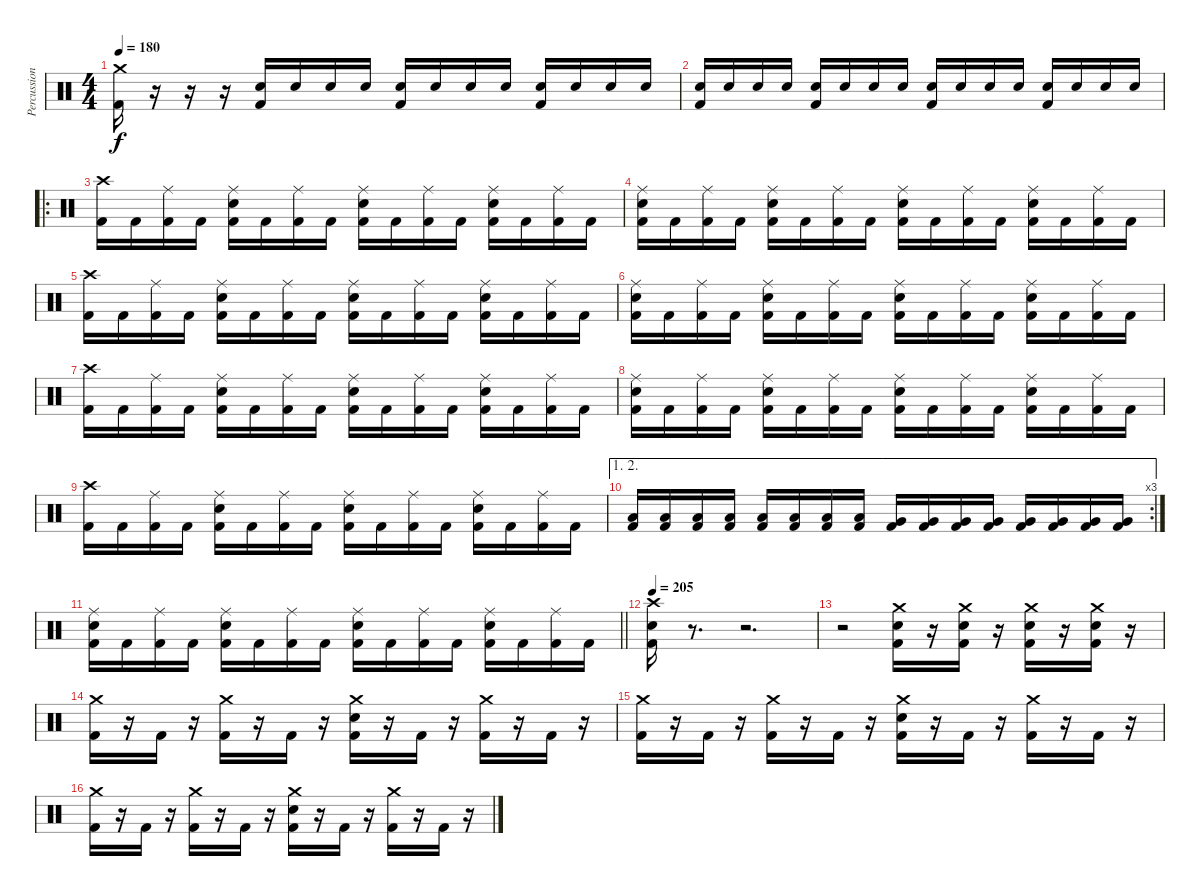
\track ("Percussion" "Percussion") {instrument percussion}
\staff {score}
\articulation defaults
\ts (4 4)
\tempo 180
\clef neutral
\ks c
("Crash medium (hit)" "Kick (hit) 2").16{dy f} r.16 r.16 r.16 ("Electric Snare (hit)" "Kick (hit) 2").16 "Electric Snare (hit)".16 "Electric Snare (hit)".16 "Electric Snare (hit)".16 ("Electric Snare (hit)" "Kick (hit) 2").16 "Electric Snare (hit)".16 "Electric Snare (hit)".16 "Electric Snare (hit)".16 ("Electric Snare (hit)" "Kick (hit) 2").16 "Electric Snare (hit)".16 "Electric Snare (hit)".16 "Electric Snare (hit)".16 |
("Electric Snare (hit)" "Kick (hit) 2").16 "Electric Snare (hit)".16 "Electric Snare (hit)".16 "Electric Snare (hit)".16 ("Electric Snare (hit)" "Kick (hit) 2").16 "Electric Snare (hit)".16 "Electric Snare (hit)".16 "Electric Snare (hit)".16 ("Electric Snare (hit)" "Kick (hit) 2").16 "Electric Snare (hit)".16 "Electric Snare (hit)".16 "Electric Snare (hit)".16 ("Electric Snare (hit)" "Kick (hit) 2").16 "Electric Snare (hit)".16 "Electric Snare (hit)".16 "Electric Snare (hit)".16 |
\ro
("Crash high (hit)" "Kick (hit) 2").16 "Kick (hit) 2".16 ("Ride (middle)" "Kick (hit) 2").16 "Kick (hit) 2".16 ("Ride (middle)" "Electric Snare (hit)" "Kick (hit) 2").16 "Kick (hit) 2".16 ("Ride (middle)" "Kick (hit) 2").16 "Kick (hit) 2".16 ("Ride (middle)" "Electric Snare (hit)" "Kick (hit) 2").16 "Kick (hit) 2".16 ("Ride (middle)" "Kick (hit) 2").16 "Kick (hit) 2".16 ("Ride (middle)" "Electric Snare (hit)" "Kick (hit) 2").16 "Kick (hit) 2".16 ("Ride (middle)" "Kick (hit) 2").16 "Kick (hit) 2".16 |
("Ride (middle)" "Electric Snare (hit)" "Kick (hit) 2").16 "Kick (hit) 2".16 ("Ride (middle)" "Kick (hit) 2").16 "Kick (hit) 2".16 ("Ride (middle)" "Electric Snare (hit)" "Kick (hit) 2").16 "Kick (hit) 2".16 ("Ride (middle)" "Kick (hit) 2").16 "Kick (hit) 2".16 ("Ride (middle)" "Electric Snare (hit)" "Kick (hit) 2").16 "Kick (hit) 2".16 ("Ride (middle)" "Kick (hit) 2").16 "Kick (hit) 2".16 ("Ride (middle)" "Electric Snare (hit)" "Kick (hit) 2").16 "Kick (hit) 2".16 ("Ride (middle)" "Kick (hit) 2").16 "Kick (hit) 2".16 |
("Crash high (hit)" "Kick (hit) 2").16 "Kick (hit) 2".16 ("Ride (middle)" "Kick (hit) 2").16 "Kick (hit) 2".16 ("Ride (middle)" "Electric Snare (hit)" "Kick (hit) 2").16 "Kick (hit) 2".16 ("Ride (middle)" "Kick (hit) 2").16 "Kick (hit) 2".16 ("Ride (middle)" "Electric Snare (hit)" "Kick (hit) 2").16 "Kick (hit) 2".16 ("Ride (middle)" "Kick (hit) 2").16 "Kick (hit) 2".16 ("Ride (middle)" "Electric Snare (hit)" "Kick (hit) 2").16 "Kick (hit) 2".16 ("Ride (middle)" "Kick (hit) 2").16 "Kick (hit) 2".16 |
("Ride (middle)" "Electric Snare (hit)" "Kick (hit) 2").16 "Kick (hit) 2".16 ("Ride (middle)" "Kick (hit) 2").16 "Kick (hit) 2".16 ("Ride (middle)" "Electric Snare (hit)" "Kick (hit) 2").16 "Kick (hit) 2".16 ("Ride (middle)" "Kick (hit) 2").16 "Kick (hit) 2".16 ("Ride (middle)" "Electric Snare (hit)" "Kick (hit) 2").16 "Kick (hit) 2".16 ("Ride (middle)" "Kick (hit) 2").16 "Kick (hit) 2".16 ("Ride (middle)" "Electric Snare (hit)" "Kick (hit) 2").16 "Kick (hit) 2".16 ("Ride (middle)" "Kick (hit) 2").16 "Kick (hit) 2".16 |
("Crash high (hit)" "Kick (hit) 2").16 "Kick (hit) 2".16 ("Ride (middle)" "Kick (hit) 2").16 "Kick (hit) 2".16 ("Ride (middle)" "Electric Snare (hit)" "Kick (hit) 2").16 "Kick (hit) 2".16 ("Ride (middle)" "Kick (hit) 2").16 "Kick (hit) 2".16 ("Ride (middle)" "Electric Snare (hit)" "Kick (hit) 2").16 "Kick (hit) 2".16 ("Ride (middle)" "Kick (hit) 2").16 "Kick (hit) 2".16 ("Ride (middle)" "Electric Snare (hit)" "Kick (hit) 2").16 "Kick (hit) 2".16 ("Ride (middle)" "Kick (hit) 2").16 "Kick (hit) 2".16 |
("Ride (middle)" "Electric Snare (hit)" "Kick (hit) 2").16 "Kick (hit) 2".16 ("Ride (middle)" "Kick (hit) 2").16 "Kick (hit) 2".16 ("Ride (middle)" "Electric Snare (hit)" "Kick (hit) 2").16 "Kick (hit) 2".16 ("Ride (middle)" "Kick (hit) 2").16 "Kick (hit) 2".16 ("Ride (middle)" "Electric Snare (hit)" "Kick (hit) 2").16 "Kick (hit) 2".16 ("Ride (middle)" "Kick (hit) 2").16 "Kick (hit) 2".16 ("Ride (middle)" "Electric Snare (hit)" "Kick (hit) 2").16 "Kick (hit) 2".16 ("Ride (middle)" "Kick (hit) 2").16 "Kick (hit) 2".16 |
("Crash high (hit)" "Kick (hit) 2").16 "Kick (hit) 2".16 ("Ride (middle)" "Kick (hit) 2").16 "Kick (hit) 2".16 ("Ride (middle)" "Electric Snare (hit)" "Kick (hit) 2").16 "Kick (hit) 2".16 ("Ride (middle)" "Kick (hit) 2").16 "Kick (hit) 2".16 ("Ride (middle)" "Electric Snare (hit)" "Kick (hit) 2").16 "Kick (hit) 2".16 ("Ride (middle)" "Kick (hit) 2").16 "Kick (hit) 2".16 ("Ride (middle)" "Electric Snare (hit)" "Kick (hit) 2").16 "Kick (hit) 2".16 ("Ride (middle)" "Kick (hit) 2").16 "Kick (hit) 2".16 |
\ae (1 2)
\rc 3
("Low Tom (hit)" "Kick (hit) 2").16 ("Low Tom (hit)" "Kick (hit) 2").16 ("Low Tom (hit)" "Kick (hit) 2").16 ("Low Tom (hit)" "Kick (hit) 2").16 ("Low Tom (hit)" "Kick (hit) 2").16 ("Low Tom (hit)" "Kick (hit) 2").16 ("Low Tom (hit)" "Kick (hit) 2").16 ("Low Tom (hit)" "Kick (hit) 2").16 ("Very Low Tom (hit)" "Kick (hit) 2").16 ("Very Low Tom (hit)" "Kick (hit) 2").16 ("Very Low Tom (hit)" "Kick (hit) 2").16 ("Very Low Tom (hit)" "Kick (hit) 2").16 ("Very Low Tom (hit)" "Kick (hit) 2").16 ("Very Low Tom (hit)" "Kick (hit) 2").16 ("Very Low Tom (hit)" "Kick (hit) 2").16 ("Very Low Tom (hit)" "Kick (hit) 2").16 |
\barLineRight lightlight
("Ride (middle)" "Electric Snare (hit)" "Kick (hit) 2").16 "Kick (hit) 2".16 ("Ride (middle)" "Kick (hit) 2").16 "Kick (hit) 2".16 ("Ride (middle)" "Electric Snare (hit)" "Kick (hit) 2").16 "Kick (hit) 2".16 ("Ride (middle)" "Kick (hit) 2").16 "Kick (hit) 2".16 ("Ride (middle)" "Electric Snare (hit)" "Kick (hit) 2").16 "Kick (hit) 2".16 ("Ride (middle)" "Kick (hit) 2").16 "Kick (hit) 2".16 ("Ride (middle)" "Electric Snare (hit)" "Kick (hit) 2").16 "Kick (hit) 2".16 ("Ride (middle)" "Kick (hit) 2").16 "Kick (hit) 2".16 |
\tempo 205
("Electric Snare (hit)" "Crash high (hit)" "Kick (hit) 2").16 r.8{d} r.2{d} |
r.2 ("Electric Snare (hit)" "Crash medium (hit)" "Kick (hit) 2").16 r.16 ("Electric Snare (hit)" "Crash medium (hit)" "Kick (hit) 2").16 r.16 ("Electric Snare (hit)" "Crash medium (hit)" "Kick (hit) 2").16 r.16 ("Electric Snare (hit)" "Crash medium (hit)" "Kick (hit) 2").16 r.16 |
("Crash medium (hit)" "Kick (hit) 2").16 r.16 "Kick (hit) 2".16 r.16 ("Crash medium (hit)" "Kick (hit) 2").16 r.16 "Kick (hit) 2".16 r.16 ("Electric Snare (hit)" "Crash medium (hit)" "Kick (hit) 2").16 r.16 "Kick (hit) 2".16 r.16 ("Crash medium (hit)" "Kick (hit) 2").16 r.16 "Kick (hit) 2".16 r.16 |
("Crash medium (hit)" "Kick (hit) 2").16 r.16 "Kick (hit) 2".16 r.16 ("Crash medium (hit)" "Kick (hit) 2").16 r.16 "Kick (hit) 2".16 r.16 ("Electric Snare (hit)" "Crash medium (hit)" "Kick (hit) 2").16 r.16 "Kick (hit) 2".16 r.16 ("Crash medium (hit)" "Kick (hit) 2").16 r.16 "Kick (hit) 2".16 r.16 |
("Crash medium (hit)" "Kick (hit) 2").16 r.16 "Kick (hit) 2".16 r.16 ("Crash medium (hit)" "Kick (hit) 2").16 r.16 "Kick (hit) 2".16 r.16 ("Electric Snare (hit)" "Crash medium (hit)" "Kick (hit) 2").16 r.16 "Kick (hit) 2".16 r.16 ("Crash medium (hit)" "Kick (hit) 2").16 r.16 "Kick (hit) 2".16 r.16
